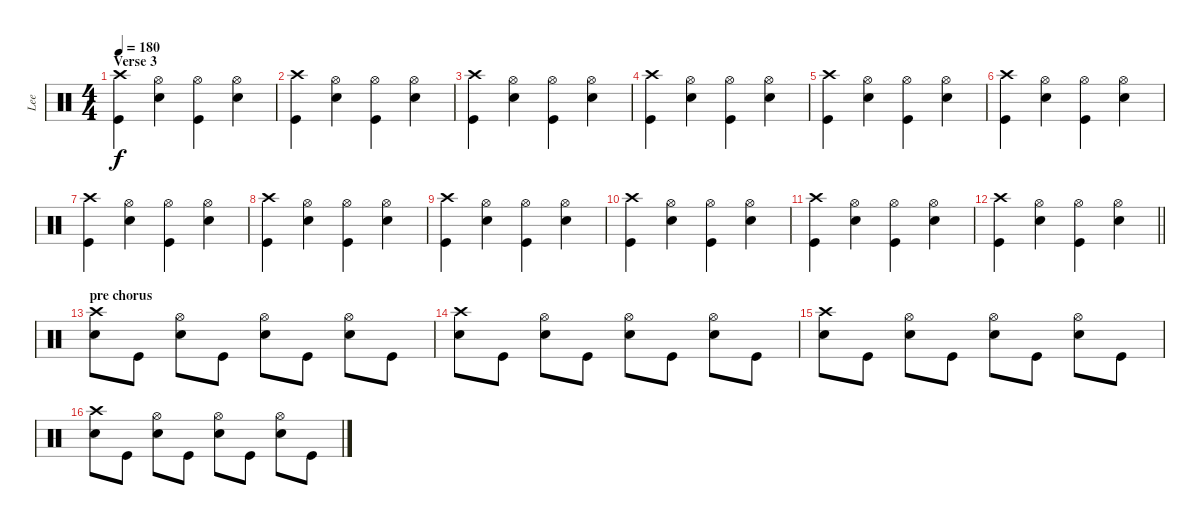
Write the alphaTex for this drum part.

\track ("Lee" "Lee") {instrument percussion}
\staff {score}
\articulation defaults
\ts (4 4)
\section ("" "Verse 3")
\tempo 180
\clef neutral
\ks c
("Kick (hit)" "Crash high (hit)").4{dy f} ("Snare (hit) 2" "Hi-Hat (open)").4 ("Kick (hit)" "Hi-Hat (open)").4 ("Snare (hit) 2" "Hi-Hat (open)").4 |
("Kick (hit)" "Crash high (hit)").4 ("Snare (hit) 2" "Hi-Hat (open)").4 ("Kick (hit)" "Hi-Hat (open)").4 ("Snare (hit) 2" "Hi-Hat (open)").4 |
("Kick (hit)" "Crash high (hit)").4 ("Snare (hit) 2" "Hi-Hat (open)").4 ("Kick (hit)" "Hi-Hat (open)").4 ("Snare (hit) 2" "Hi-Hat (open)").4 |
("Kick (hit)" "Crash high (hit)").4 ("Snare (hit) 2" "Hi-Hat (open)").4 ("Kick (hit)" "Hi-Hat (open)").4 ("Snare (hit) 2" "Hi-Hat (open)").4 |
("Kick (hit)" "Crash high (hit)").4 ("Snare (hit) 2" "Hi-Hat (open)").4 ("Kick (hit)" "Hi-Hat (open)").4 ("Snare (hit) 2" "Hi-Hat (open)").4 |
("Kick (hit)" "Crash high (hit)").4 ("Snare (hit) 2" "Hi-Hat (open)").4 ("Kick (hit)" "Hi-Hat (open)").4 ("Snare (hit) 2" "Hi-Hat (open)").4 |
("Kick (hit)" "Crash high (hit)").4 ("Snare (hit) 2" "Hi-Hat (open)").4 ("Kick (hit)" "Hi-Hat (open)").4 ("Snare (hit) 2" "Hi-Hat (open)").4 |
("Kick (hit)" "Crash high (hit)").4 ("Snare (hit) 2" "Hi-Hat (open)").4 ("Kick (hit)" "Hi-Hat (open)").4 ("Snare (hit) 2" "Hi-Hat (open)").4 |
("Kick (hit)" "Crash high (hit)").4 ("Snare (hit) 2" "Hi-Hat (open)").4 ("Kick (hit)" "Hi-Hat (open)").4 ("Snare (hit) 2" "Hi-Hat (open)").4 |
("Kick (hit)" "Crash high (hit)").4 ("Snare (hit) 2" "Hi-Hat (open)").4 ("Kick (hit)" "Hi-Hat (open)").4 ("Snare (hit) 2" "Hi-Hat (open)").4 |
("Kick (hit)" "Crash high (hit)").4 ("Snare (hit) 2" "Hi-Hat (open)").4 ("Kick (hit)" "Hi-Hat (open)").4 ("Snare (hit) 2" "Hi-Hat (open)").4 |
\barLineRight lightlight
("Kick (hit)" "Crash high (hit)").4 ("Snare (hit) 2" "Hi-Hat (open)").4 ("Kick (hit)" "Hi-Hat (open)").4 ("Snare (hit) 2" "Hi-Hat (open)").4 |
\section ("" "pre chorus")
("Snare (hit) 2" "Crash high (hit)").8 "Kick (hit)".8 ("Snare (hit) 2" "Hi-Hat (open)").8 "Kick (hit)".8 ("Snare (hit) 2" "Hi-Hat (open)").8 "Kick (hit)".8 ("Snare (hit) 2" "Hi-Hat (open)").8 "Kick (hit)".8 |
("Snare (hit) 2" "Crash high (hit)").8 "Kick (hit)".8 ("Snare (hit) 2" "Hi-Hat (open)").8 "Kick (hit)".8 ("Snare (hit) 2" "Hi-Hat (open)").8 "Kick (hit)".8 ("Snare (hit) 2" "Hi-Hat (open)").8 "Kick (hit)".8 |
("Snare (hit) 2" "Crash high (hit)").8 "Kick (hit)".8 ("Snare (hit) 2" "Hi-Hat (open)").8 "Kick (hit)".8 ("Snare (hit) 2" "Hi-Hat (open)").8 "Kick (hit)".8 ("Snare (hit) 2" "Hi-Hat (open)").8 "Kick (hit)".8 |
("Snare (hit) 2" "Crash high (hit)").8 "Kick (hit)".8 ("Snare (hit) 2" "Hi-Hat (open)").8 "Kick (hit)".8 ("Snare (hit) 2" "Hi-Hat (open)").8 "Kick (hit)".8 ("Snare (hit) 2" "Hi-Hat (open)").8 "Kick (hit)".8
